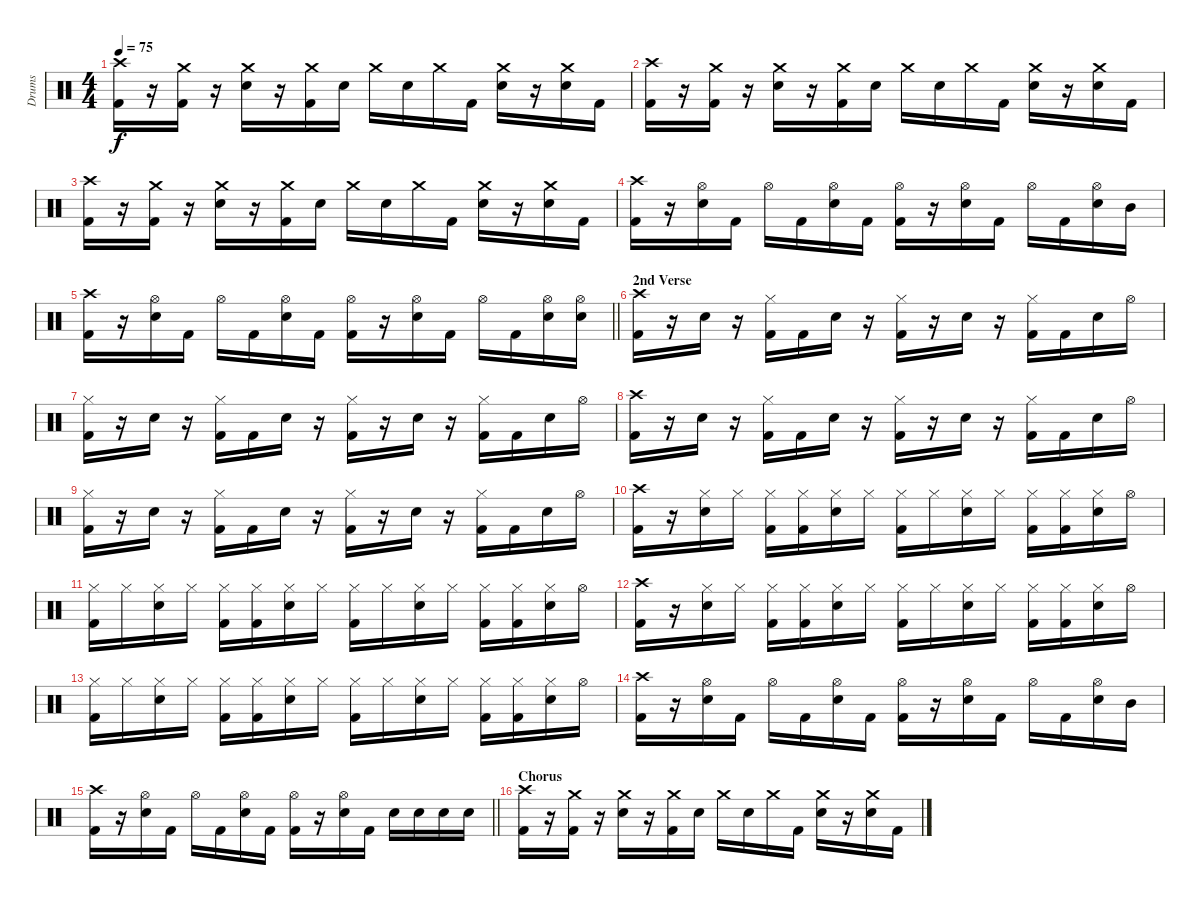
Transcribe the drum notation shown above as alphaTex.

\track ("Drums" "Drums") {instrument percussion}
\staff {score}
\articulation defaults
\ts (4 4)
\tempo 75
\clef neutral
\ks c
("Kick (hit) 2" "Crash high (hit)").16{dy f} r.16 ("Kick (hit) 2" "Crash medium (hit)").16 r.16 ("Snare (hit) 2" "Crash medium (hit)").16 r.16 ("Kick (hit) 2" "Crash medium (hit)").16 "Snare (hit) 2".16 "Crash medium (hit)".16 "Snare (hit) 2".16 "Crash medium (hit)".16 "Kick (hit) 2".16 ("Snare (hit) 2" "Crash medium (hit)").16 r.16 ("Snare (hit) 2" "Crash medium (hit)").16 "Kick (hit) 2".16 |
("Kick (hit) 2" "Crash high (hit)").16 r.16 ("Kick (hit) 2" "Crash medium (hit)").16 r.16 ("Snare (hit) 2" "Crash medium (hit)").16 r.16 ("Kick (hit) 2" "Crash medium (hit)").16 "Snare (hit) 2".16 "Crash medium (hit)".16 "Snare (hit) 2".16 "Crash medium (hit)".16 "Kick (hit) 2".16 ("Snare (hit) 2" "Crash medium (hit)").16 r.16 ("Snare (hit) 2" "Crash medium (hit)").16 "Kick (hit) 2".16 |
("Kick (hit) 2" "Crash high (hit)").16 r.16 ("Kick (hit) 2" "Crash medium (hit)").16 r.16 ("Snare (hit) 2" "Crash medium (hit)").16 r.16 ("Kick (hit) 2" "Crash medium (hit)").16 "Snare (hit) 2".16 "Crash medium (hit)".16 "Snare (hit) 2".16 "Crash medium (hit)".16 "Kick (hit) 2".16 ("Snare (hit) 2" "Crash medium (hit)").16 r.16 ("Snare (hit) 2" "Crash medium (hit)").16 "Kick (hit) 2".16 |
("Kick (hit) 2" "Crash high (hit)").16 r.16 ("Snare (hit) 2" "Hi-Hat (open)").16 "Kick (hit) 2".16 "Hi-Hat (open)".16 "Kick (hit) 2".16 ("Snare (hit) 2" "Hi-Hat (open)").16 "Kick (hit) 2".16 ("Kick (hit) 2" "Hi-Hat (open)").16 r.16 ("Snare (hit) 2" "Hi-Hat (open)").16 "Kick (hit) 2".16 "Hi-Hat (open)".16 "Kick (hit) 2".16 ("Snare (hit) 2" "Hi-Hat (open)").16 "Mid Tom (hit)".16 |
\barLineRight lightlight
("Kick (hit) 2" "Crash high (hit)").16 r.16 ("Snare (hit) 2" "Hi-Hat (open)").16 "Kick (hit) 2".16 "Hi-Hat (open)".16 "Kick (hit) 2".16 ("Snare (hit) 2" "Hi-Hat (open)").16 "Kick (hit) 2".16 ("Kick (hit) 2" "Hi-Hat (open)").16 r.16 ("Snare (hit) 2" "Hi-Hat (open)").16 "Kick (hit) 2".16 "Hi-Hat (open)".16 "Kick (hit) 2".16 ("Snare (hit) 2" "Hi-Hat (open)").16 ("Snare (hit) 2" "Hi-Hat (open)").16 |
\section ("" "2nd Verse")
("Kick (hit) 2" "Crash high (hit)").16 r.16 "Snare (hit) 2".16 r.16 ("Kick (hit) 2" "Hi-Hat (closed)").16 "Kick (hit) 2".16 "Snare (hit) 2".16 r.16 ("Kick (hit) 2" "Hi-Hat (closed)").16 r.16 "Snare (hit) 2".16 r.16 ("Kick (hit) 2" "Hi-Hat (closed)").16 "Kick (hit) 2".16 "Snare (hit) 2".16 "Hi-Hat (open)".16 |
("Kick (hit) 2" "Hi-Hat (closed)").16 r.16 "Snare (hit) 2".16 r.16 ("Kick (hit) 2" "Hi-Hat (closed)").16 "Kick (hit) 2".16 "Snare (hit) 2".16 r.16 ("Kick (hit) 2" "Hi-Hat (closed)").16 r.16 "Snare (hit) 2".16 r.16 ("Kick (hit) 2" "Hi-Hat (closed)").16 "Kick (hit) 2".16 "Snare (hit) 2".16 "Hi-Hat (open)".16 |
("Kick (hit) 2" "Crash high (hit)").16 r.16 "Snare (hit) 2".16 r.16 ("Kick (hit) 2" "Hi-Hat (closed)").16 "Kick (hit) 2".16 "Snare (hit) 2".16 r.16 ("Kick (hit) 2" "Hi-Hat (closed)").16 r.16 "Snare (hit) 2".16 r.16 ("Kick (hit) 2" "Hi-Hat (closed)").16 "Kick (hit) 2".16 "Snare (hit) 2".16 "Hi-Hat (open)".16 |
("Kick (hit) 2" "Hi-Hat (closed)").16 r.16 "Snare (hit) 2".16 r.16 ("Kick (hit) 2" "Hi-Hat (closed)").16 "Kick (hit) 2".16 "Snare (hit) 2".16 r.16 ("Kick (hit) 2" "Hi-Hat (closed)").16 r.16 "Snare (hit) 2".16 r.16 ("Kick (hit) 2" "Hi-Hat (closed)").16 "Kick (hit) 2".16 "Snare (hit) 2".16 "Hi-Hat (open)".16 |
("Kick (hit) 2" "Crash high (hit)").16 r.16 ("Snare (hit) 2" "Hi-Hat (closed)").16 "Hi-Hat (closed)".16 ("Kick (hit) 2" "Hi-Hat (closed)").16 ("Kick (hit) 2" "Hi-Hat (closed)").16 ("Snare (hit) 2" "Hi-Hat (closed)").16 "Hi-Hat (closed)".16 ("Kick (hit) 2" "Hi-Hat (closed)").16 "Hi-Hat (closed)".16 ("Snare (hit) 2" "Hi-Hat (closed)").16 "Hi-Hat (closed)".16 ("Kick (hit) 2" "Hi-Hat (closed)").16 ("Kick (hit) 2" "Hi-Hat (closed)").16 ("Snare (hit) 2" "Hi-Hat (closed)").16 "Hi-Hat (open)".16 |
("Kick (hit) 2" "Hi-Hat (closed)").16 "Hi-Hat (closed)".16 ("Snare (hit) 2" "Hi-Hat (closed)").16 "Hi-Hat (closed)".16 ("Kick (hit) 2" "Hi-Hat (closed)").16 ("Kick (hit) 2" "Hi-Hat (closed)").16 ("Snare (hit) 2" "Hi-Hat (closed)").16 "Hi-Hat (closed)".16 ("Kick (hit) 2" "Hi-Hat (closed)").16 "Hi-Hat (closed)".16 ("Snare (hit) 2" "Hi-Hat (closed)").16 "Hi-Hat (closed)".16 ("Kick (hit) 2" "Hi-Hat (closed)").16 ("Kick (hit) 2" "Hi-Hat (closed)").16 ("Snare (hit) 2" "Hi-Hat (closed)").16 "Hi-Hat (open)".16 |
("Kick (hit) 2" "Crash high (hit)").16 r.16 ("Snare (hit) 2" "Hi-Hat (closed)").16 "Hi-Hat (closed)".16 ("Kick (hit) 2" "Hi-Hat (closed)").16 ("Kick (hit) 2" "Hi-Hat (closed)").16 ("Snare (hit) 2" "Hi-Hat (closed)").16 "Hi-Hat (closed)".16 ("Kick (hit) 2" "Hi-Hat (closed)").16 "Hi-Hat (closed)".16 ("Snare (hit) 2" "Hi-Hat (closed)").16 "Hi-Hat (closed)".16 ("Kick (hit) 2" "Hi-Hat (closed)").16 ("Kick (hit) 2" "Hi-Hat (closed)").16 ("Snare (hit) 2" "Hi-Hat (closed)").16 "Hi-Hat (open)".16 |
("Kick (hit) 2" "Hi-Hat (closed)").16 "Hi-Hat (closed)".16 ("Snare (hit) 2" "Hi-Hat (closed)").16 "Hi-Hat (closed)".16 ("Kick (hit) 2" "Hi-Hat (closed)").16 ("Kick (hit) 2" "Hi-Hat (closed)").16 ("Snare (hit) 2" "Hi-Hat (closed)").16 "Hi-Hat (closed)".16 ("Kick (hit) 2" "Hi-Hat (closed)").16 "Hi-Hat (closed)".16 ("Snare (hit) 2" "Hi-Hat (closed)").16 "Hi-Hat (closed)".16 ("Kick (hit) 2" "Hi-Hat (closed)").16 ("Kick (hit) 2" "Hi-Hat (closed)").16 ("Snare (hit) 2" "Hi-Hat (closed)").16 "Hi-Hat (open)".16 |
("Kick (hit) 2" "Crash high (hit)").16 r.16 ("Snare (hit) 2" "Hi-Hat (open)").16 "Kick (hit) 2".16 "Hi-Hat (open)".16 "Kick (hit) 2".16 ("Snare (hit) 2" "Hi-Hat (open)").16 "Kick (hit) 2".16 ("Kick (hit) 2" "Hi-Hat (open)").16 r.16 ("Snare (hit) 2" "Hi-Hat (open)").16 "Kick (hit) 2".16 "Hi-Hat (open)".16 "Kick (hit) 2".16 ("Snare (hit) 2" "Hi-Hat (open)").16 "Mid Tom (hit)".16 |
\barLineRight lightlight
("Kick (hit) 2" "Crash high (hit)").16 r.16 ("Snare (hit) 2" "Hi-Hat (open)").16 "Kick (hit) 2".16 "Hi-Hat (open)".16 "Kick (hit) 2".16 ("Snare (hit) 2" "Hi-Hat (open)").16 "Kick (hit) 2".16 ("Kick (hit) 2" "Hi-Hat (open)").16 r.16 ("Snare (hit) 2" "Hi-Hat (open)").16 "Kick (hit) 2".16 "Snare (hit) 2".16 "Snare (hit) 2".16 "Snare (hit) 2".16 "Snare (hit) 2".16 |
\section ("" "Chorus")
("Kick (hit) 2" "Crash high (hit)").16 r.16 ("Kick (hit) 2" "Crash medium (hit)").16 r.16 ("Snare (hit) 2" "Crash medium (hit)").16 r.16 ("Kick (hit) 2" "Crash medium (hit)").16 "Snare (hit) 2".16 "Crash medium (hit)".16 "Snare (hit) 2".16 "Crash medium (hit)".16 "Kick (hit) 2".16 ("Snare (hit) 2" "Crash medium (hit)").16 r.16 ("Snare (hit) 2" "Crash medium (hit)").16 "Kick (hit) 2".16
